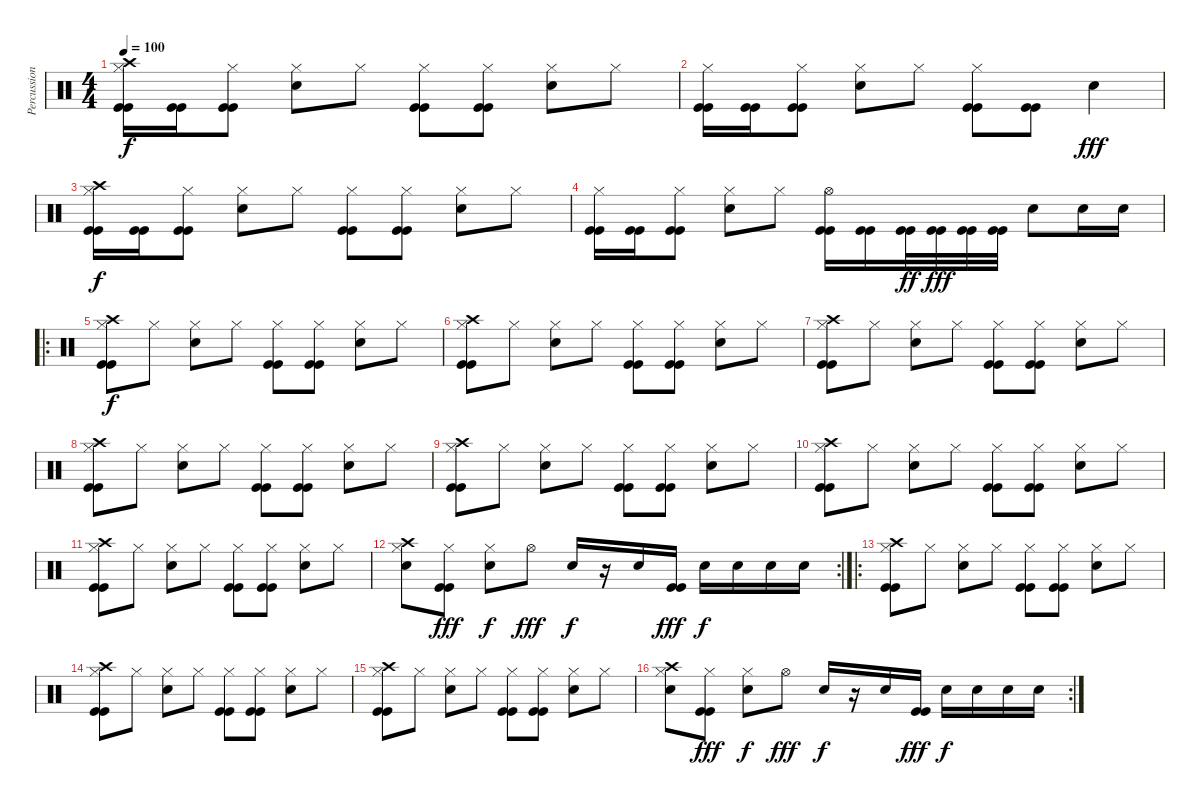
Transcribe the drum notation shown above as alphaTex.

\track ("Percussion" "Percussion") {instrument percussion}
\staff {score}
\articulation defaults
\ts (4 4)
\tempo 100
\clef neutral
\ks c
("Kick (hit)" "Kick (hit)" "Hi-Hat (closed)" "Crash high (hit)").16{dy f} ("Kick (hit)" "Kick (hit)").16 ("Kick (hit)" "Kick (hit)" "Hi-Hat (closed)").8 ("Snare (hit) 2" "Hi-Hat (closed)").8 "Hi-Hat (closed)".8 ("Kick (hit)" "Kick (hit)" "Hi-Hat (closed)").8 ("Kick (hit)" "Kick (hit)" "Hi-Hat (closed)").8 ("Snare (hit) 2" "Hi-Hat (closed)").8 "Hi-Hat (closed)".8 |
("Kick (hit)" "Kick (hit)" "Hi-Hat (closed)").16 ("Kick (hit)" "Kick (hit)").16 ("Kick (hit)" "Kick (hit)" "Hi-Hat (closed)").8 ("Snare (hit) 2" "Hi-Hat (closed)").8 "Hi-Hat (closed)".8 ("Kick (hit)" "Kick (hit)" "Hi-Hat (closed)").8 ("Kick (hit)" "Kick (hit)").8 "Snare (hit) 2".4{dy fff} |
("Kick (hit)" "Kick (hit)" "Hi-Hat (closed)" "Crash high (hit)").16{dy f} ("Kick (hit)" "Kick (hit)").16 ("Kick (hit)" "Kick (hit)" "Hi-Hat (closed)").8 ("Snare (hit) 2" "Hi-Hat (closed)").8 "Hi-Hat (closed)".8 ("Kick (hit)" "Kick (hit)" "Hi-Hat (closed)").8 ("Kick (hit)" "Kick (hit)" "Hi-Hat (closed)").8 ("Snare (hit) 2" "Hi-Hat (closed)").8 "Hi-Hat (closed)".8 |
("Kick (hit)" "Kick (hit)" "Hi-Hat (closed)").16 ("Kick (hit)" "Kick (hit)").16 ("Kick (hit)" "Kick (hit)" "Hi-Hat (closed)").8 ("Snare (hit) 2" "Hi-Hat (closed)").8 "Hi-Hat (closed)".8 ("Kick (hit)" "Kick (hit)" "Hi-Hat (open)").16 ("Kick (hit)" "Kick (hit)").16 ("Kick (hit)" "Kick (hit)").32{dy ff} ("Kick (hit)" "Kick (hit)").32{dy fff} ("Kick (hit)" "Kick (hit)").32 ("Kick (hit)" "Kick (hit)").32 "Snare (hit) 2".8 "Snare (hit) 2".16 "Snare (hit) 2".16 |
\ro
("Kick (hit)" "Kick (hit)" "Hi-Hat (closed)" "Crash high (hit)").8{dy f} "Hi-Hat (closed)".8 ("Snare (hit) 2" "Hi-Hat (closed)").8 "Hi-Hat (closed)".8 ("Kick (hit)" "Kick (hit)" "Hi-Hat (closed)").8 ("Kick (hit)" "Kick (hit)" "Hi-Hat (closed)").8 ("Snare (hit) 2" "Hi-Hat (closed)").8 "Hi-Hat (closed)".8 |
("Kick (hit)" "Kick (hit)" "Hi-Hat (closed)" "Crash high (hit)").8 "Hi-Hat (closed)".8 ("Snare (hit) 2" "Hi-Hat (closed)").8 "Hi-Hat (closed)".8 ("Kick (hit)" "Kick (hit)" "Hi-Hat (closed)").8 ("Kick (hit)" "Kick (hit)" "Hi-Hat (closed)").8 ("Snare (hit) 2" "Hi-Hat (closed)").8 "Hi-Hat (closed)".8 |
("Kick (hit)" "Kick (hit)" "Hi-Hat (closed)" "Crash high (hit)").8 "Hi-Hat (closed)".8 ("Snare (hit) 2" "Hi-Hat (closed)").8 "Hi-Hat (closed)".8 ("Kick (hit)" "Kick (hit)" "Hi-Hat (closed)").8 ("Kick (hit)" "Kick (hit)" "Hi-Hat (closed)").8 ("Snare (hit) 2" "Hi-Hat (closed)").8 "Hi-Hat (closed)".8 |
("Kick (hit)" "Kick (hit)" "Hi-Hat (closed)" "Crash high (hit)").8 "Hi-Hat (closed)".8 ("Snare (hit) 2" "Hi-Hat (closed)").8 "Hi-Hat (closed)".8 ("Kick (hit)" "Kick (hit)" "Hi-Hat (closed)").8 ("Kick (hit)" "Kick (hit)" "Hi-Hat (closed)").8 ("Snare (hit) 2" "Hi-Hat (closed)").8 "Hi-Hat (closed)".8 |
("Kick (hit)" "Kick (hit)" "Hi-Hat (closed)" "Crash high (hit)").8 "Hi-Hat (closed)".8 ("Snare (hit) 2" "Hi-Hat (closed)").8 "Hi-Hat (closed)".8 ("Kick (hit)" "Kick (hit)" "Hi-Hat (closed)").8 ("Kick (hit)" "Kick (hit)" "Hi-Hat (closed)").8 ("Snare (hit) 2" "Hi-Hat (closed)").8 "Hi-Hat (closed)".8 |
("Kick (hit)" "Kick (hit)" "Hi-Hat (closed)" "Crash high (hit)").8 "Hi-Hat (closed)".8 ("Snare (hit) 2" "Hi-Hat (closed)").8 "Hi-Hat (closed)".8 ("Kick (hit)" "Kick (hit)" "Hi-Hat (closed)").8 ("Kick (hit)" "Kick (hit)" "Hi-Hat (closed)").8 ("Snare (hit) 2" "Hi-Hat (closed)").8 "Hi-Hat (closed)".8 |
("Kick (hit)" "Kick (hit)" "Hi-Hat (closed)" "Crash high (hit)").8 "Hi-Hat (closed)".8 ("Snare (hit) 2" "Hi-Hat (closed)").8 "Hi-Hat (closed)".8 ("Kick (hit)" "Kick (hit)" "Hi-Hat (closed)").8 ("Kick (hit)" "Kick (hit)" "Hi-Hat (closed)").8 ("Snare (hit) 2" "Hi-Hat (closed)").8 "Hi-Hat (closed)".8 |
\rc 2
("Snare (hit) 2" "Hi-Hat (closed)" "Crash high (hit)").8 ("Kick (hit)" "Kick (hit)" "Hi-Hat (closed)").8{dy fff} ("Snare (hit) 2" "Hi-Hat (closed)").8{dy f} "Hi-Hat (open)".8{dy fff} "Snare (hit) 2".16{dy f} r.16 "Snare (hit) 2".16 ("Kick (hit)" "Kick (hit)").16{dy fff} "Snare (hit) 2".16{dy f} "Snare (hit) 2".16 "Snare (hit) 2".16 "Snare (hit) 2".16 |
\ro
("Kick (hit)" "Kick (hit)" "Hi-Hat (closed)" "Crash high (hit)").8 "Hi-Hat (closed)".8 ("Snare (hit) 2" "Hi-Hat (closed)").8 "Hi-Hat (closed)".8 ("Kick (hit)" "Kick (hit)" "Hi-Hat (closed)").8 ("Kick (hit)" "Kick (hit)" "Hi-Hat (closed)").8 ("Snare (hit) 2" "Hi-Hat (closed)").8 "Hi-Hat (closed)".8 |
("Kick (hit)" "Kick (hit)" "Hi-Hat (closed)" "Crash high (hit)").8 "Hi-Hat (closed)".8 ("Snare (hit) 2" "Hi-Hat (closed)").8 "Hi-Hat (closed)".8 ("Kick (hit)" "Kick (hit)" "Hi-Hat (closed)").8 ("Kick (hit)" "Kick (hit)" "Hi-Hat (closed)").8 ("Snare (hit) 2" "Hi-Hat (closed)").8 "Hi-Hat (closed)".8 |
("Kick (hit)" "Kick (hit)" "Hi-Hat (closed)" "Crash high (hit)").8 "Hi-Hat (closed)".8 ("Snare (hit) 2" "Hi-Hat (closed)").8 "Hi-Hat (closed)".8 ("Kick (hit)" "Kick (hit)" "Hi-Hat (closed)").8 ("Kick (hit)" "Kick (hit)" "Hi-Hat (closed)").8 ("Snare (hit) 2" "Hi-Hat (closed)").8 "Hi-Hat (closed)".8 |
\rc 2
("Snare (hit) 2" "Hi-Hat (closed)" "Crash high (hit)").8 ("Kick (hit)" "Kick (hit)" "Hi-Hat (closed)").8{dy fff} ("Snare (hit) 2" "Hi-Hat (closed)").8{dy f} "Hi-Hat (open)".8{dy fff} "Snare (hit) 2".16{dy f} r.16 "Snare (hit) 2".16 ("Kick (hit)" "Kick (hit)").16{dy fff} "Snare (hit) 2".16{dy f} "Snare (hit) 2".16 "Snare (hit) 2".16 "Snare (hit) 2".16
